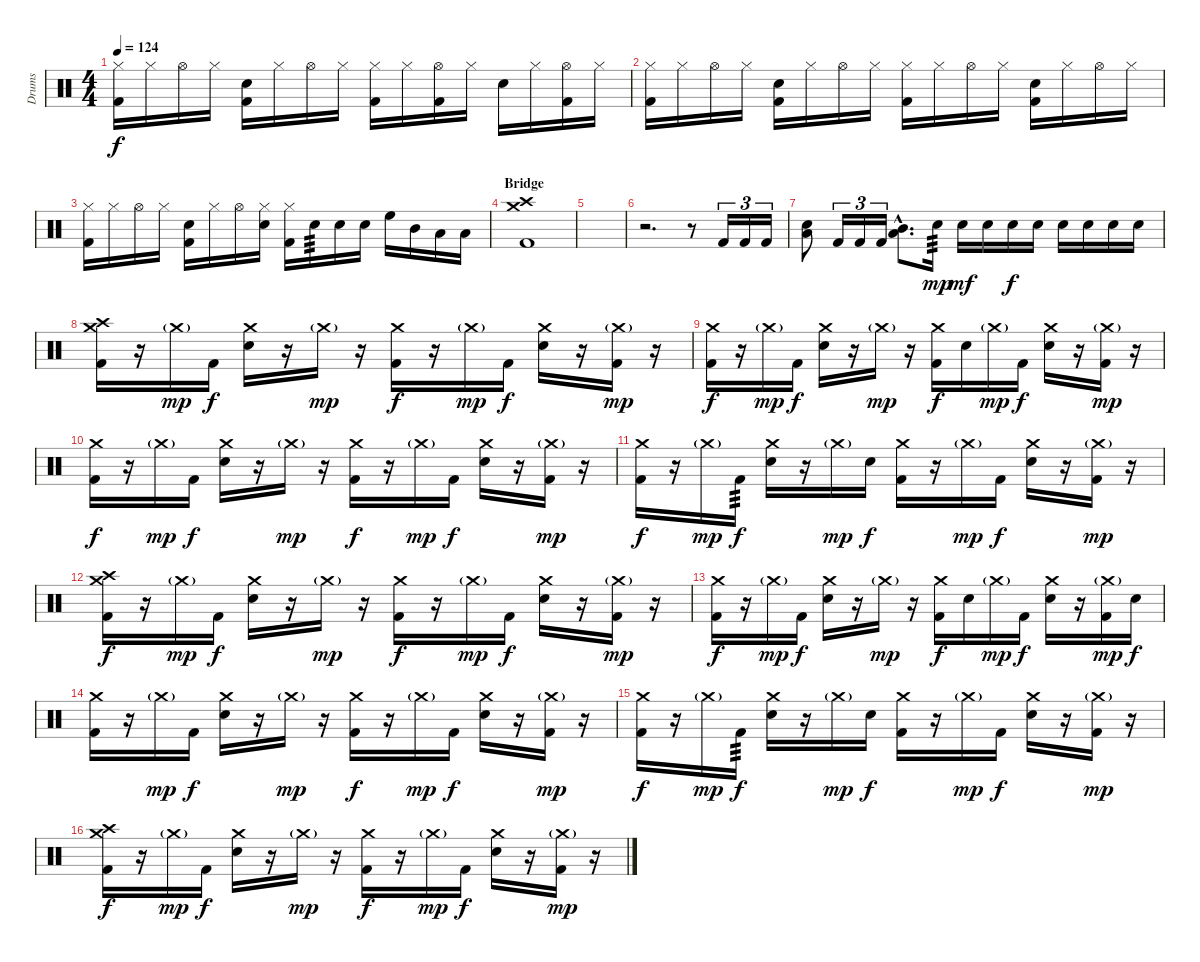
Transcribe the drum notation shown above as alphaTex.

\track ("Drums" "Drums") {instrument percussion}
\staff {score}
\articulation defaults
\ts (4 4)
\tempo 124
\clef neutral
\ks c
("Hi-Hat (closed)" "Kick (hit) 2").16{dy f} "Hi-Hat (closed)".16 "Hi-Hat (open)".16 "Hi-Hat (closed)".16 ("Electric Snare (hit)" "Kick (hit) 2").16 "Hi-Hat (closed)".16 "Hi-Hat (open)".16 "Hi-Hat (closed)".16 ("Hi-Hat (closed)" "Kick (hit) 2").16 "Hi-Hat (closed)".16 ("Hi-Hat (open)" "Kick (hit) 2").16 "Hi-Hat (closed)".16 "Electric Snare (hit)".16 "Hi-Hat (closed)".16 ("Hi-Hat (open)" "Kick (hit) 2").16 "Hi-Hat (closed)".16 |
("Hi-Hat (closed)" "Kick (hit) 2").16 "Hi-Hat (closed)".16 "Hi-Hat (open)".16 "Hi-Hat (closed)".16 ("Electric Snare (hit)" "Kick (hit) 2").16 "Hi-Hat (closed)".16 "Hi-Hat (open)".16 "Hi-Hat (closed)".16 ("Hi-Hat (closed)" "Kick (hit) 2").16 "Hi-Hat (closed)".16 "Hi-Hat (open)".16 "Hi-Hat (closed)".16 ("Electric Snare (hit)" "Kick (hit) 2").16 "Hi-Hat (closed)".16 "Hi-Hat (open)".16 "Hi-Hat (closed)".16 |
("Hi-Hat (closed)" "Kick (hit) 2").16 "Hi-Hat (closed)".16 "Hi-Hat (open)".16 "Hi-Hat (closed)".16 ("Electric Snare (hit)" "Kick (hit) 2").16 "Hi-Hat (closed)".16 "Hi-Hat (open)".16 ("Hi-Hat (closed)" "Electric Snare (hit)").16 ("Hi-Hat (closed)" "Kick (hit) 2").16 "Electric Snare (hit)".16{tp 3} "Electric Snare (hit)".16 "Electric Snare (hit)".16 "High Floor Tom (hit)".16 "Mid Tom (hit)".16 "Low Tom (hit)".16 "Low Tom (hit)".16 |
\section ("" "Bridge")
("Crash high (hit)" "Crash medium (hit)" "Kick (hit) 2").1 |
|
r.2{d} r.8 "Kick (hit) 2".16{tu (3 2)} "Kick (hit) 2".16{tu (3 2)} "Kick (hit) 2".16{tu (3 2)} |
("Electric Snare (hit)" "Low Tom (hit)").8 "Kick (hit) 2".16{tu (3 2)} "Kick (hit) 2".16{tu (3 2)} "Kick (hit) 2".16{tu (3 2)} ("Mid Tom (hit)"{hac} "Low Tom (hit)"{hac}).8{d} "Electric Snare (hit)".16{tp 3 dy mp} "Electric Snare (hit)".16{dy mf} "Electric Snare (hit)".16 "Electric Snare (hit)".16{dy f} "Electric Snare (hit)".16 "Electric Snare (hit)".16 "Electric Snare (hit)".16 "Electric Snare (hit)".16 "Electric Snare (hit)".16 |
("Crash medium (hit)" "Crash high (hit)" "Kick (hit) 2").16 r.16 "Crash medium (hit)"{g}.16{dy mp} "Kick (hit) 2".16{dy f} ("Crash medium (hit)" "Electric Snare (hit)").16 r.16 "Crash medium (hit)"{g}.16{dy mp} r.16 ("Crash medium (hit)" "Kick (hit) 2").16{dy f} r.16 "Crash medium (hit)"{g}.16{dy mp} "Kick (hit) 2".16{dy f} ("Crash medium (hit)" "Electric Snare (hit)").16 r.16 ("Crash medium (hit)"{g} "Kick (hit) 2").16{dy mp} r.16 |
("Crash medium (hit)" "Kick (hit) 2").16{dy f} r.16 "Crash medium (hit)"{g}.16{dy mp} "Kick (hit) 2".16{dy f} ("Crash medium (hit)" "Electric Snare (hit)").16 r.16 "Crash medium (hit)"{g}.16{dy mp} r.16 ("Crash medium (hit)" "Kick (hit) 2").16{dy f} "Electric Snare (hit)".16 "Crash medium (hit)"{g}.16{dy mp} "Kick (hit) 2".16{dy f} ("Crash medium (hit)" "Electric Snare (hit)").16 r.16 ("Crash medium (hit)"{g} "Kick (hit) 2").16{dy mp} r.16 |
("Crash medium (hit)" "Kick (hit) 2").16{dy f} r.16 "Crash medium (hit)"{g}.16{dy mp} "Kick (hit) 2".16{dy f} ("Crash medium (hit)" "Electric Snare (hit)").16 r.16 "Crash medium (hit)"{g}.16{dy mp} r.16 ("Crash medium (hit)" "Kick (hit) 2").16{dy f} r.16 "Crash medium (hit)"{g}.16{dy mp} "Kick (hit) 2".16{dy f} ("Crash medium (hit)" "Electric Snare (hit)").16 r.16 ("Crash medium (hit)"{g} "Kick (hit) 2").16{dy mp} r.16 |
("Crash medium (hit)" "Kick (hit) 2").16{dy f} r.16 "Crash medium (hit)"{g}.16{dy mp} "Kick (hit) 2".16{tp 3 dy f} ("Crash medium (hit)" "Electric Snare (hit)").16 r.16 "Crash medium (hit)"{g}.16{dy mp} "Electric Snare (hit)".16{dy f} ("Crash medium (hit)" "Kick (hit) 2").16 r.16 "Crash medium (hit)"{g}.16{dy mp} "Kick (hit) 2".16{dy f} ("Crash medium (hit)" "Electric Snare (hit)").16 r.16 ("Crash medium (hit)"{g} "Kick (hit) 2").16{dy mp} r.16 |
("Crash medium (hit)" "Crash high (hit)" "Kick (hit) 2").16{dy f} r.16 "Crash medium (hit)"{g}.16{dy mp} "Kick (hit) 2".16{dy f} ("Crash medium (hit)" "Electric Snare (hit)").16 r.16 "Crash medium (hit)"{g}.16{dy mp} r.16 ("Crash medium (hit)" "Kick (hit) 2").16{dy f} r.16 "Crash medium (hit)"{g}.16{dy mp} "Kick (hit) 2".16{dy f} ("Crash medium (hit)" "Electric Snare (hit)").16 r.16 ("Crash medium (hit)"{g} "Kick (hit) 2").16{dy mp} r.16 |
("Crash medium (hit)" "Kick (hit) 2").16{dy f} r.16 "Crash medium (hit)"{g}.16{dy mp} "Kick (hit) 2".16{dy f} ("Crash medium (hit)" "Electric Snare (hit)").16 r.16 "Crash medium (hit)"{g}.16{dy mp} r.16 ("Crash medium (hit)" "Kick (hit) 2").16{dy f} "Electric Snare (hit)".16 "Crash medium (hit)"{g}.16{dy mp} "Kick (hit) 2".16{dy f} ("Crash medium (hit)" "Electric Snare (hit)").16 r.16 ("Crash medium (hit)"{g} "Kick (hit) 2").16{dy mp} "Electric Snare (hit)".16{dy f} |
("Crash medium (hit)" "Kick (hit) 2").16 r.16 "Crash medium (hit)"{g}.16{dy mp} "Kick (hit) 2".16{dy f} ("Crash medium (hit)" "Electric Snare (hit)").16 r.16 "Crash medium (hit)"{g}.16{dy mp} r.16 ("Crash medium (hit)" "Kick (hit) 2").16{dy f} r.16 "Crash medium (hit)"{g}.16{dy mp} "Kick (hit) 2".16{dy f} ("Crash medium (hit)" "Electric Snare (hit)").16 r.16 ("Crash medium (hit)"{g} "Kick (hit) 2").16{dy mp} r.16 |
("Crash medium (hit)" "Kick (hit) 2").16{dy f} r.16 "Crash medium (hit)"{g}.16{dy mp} "Kick (hit) 2".16{tp 3 dy f} ("Crash medium (hit)" "Electric Snare (hit)").16 r.16 "Crash medium (hit)"{g}.16{dy mp} "Electric Snare (hit)".16{dy f} ("Crash medium (hit)" "Kick (hit) 2").16 r.16 "Crash medium (hit)"{g}.16{dy mp} "Kick (hit) 2".16{dy f} ("Crash medium (hit)" "Electric Snare (hit)").16 r.16 ("Crash medium (hit)"{g} "Kick (hit) 2").16{dy mp} r.16 |
("Crash medium (hit)" "Crash high (hit)" "Kick (hit) 2").16{dy f} r.16 "Crash medium (hit)"{g}.16{dy mp} "Kick (hit) 2".16{dy f} ("Crash medium (hit)" "Electric Snare (hit)").16 r.16 "Crash medium (hit)"{g}.16{dy mp} r.16 ("Crash medium (hit)" "Kick (hit) 2").16{dy f} r.16 "Crash medium (hit)"{g}.16{dy mp} "Kick (hit) 2".16{dy f} ("Crash medium (hit)" "Electric Snare (hit)").16 r.16 ("Crash medium (hit)"{g} "Kick (hit) 2").16{dy mp} r.16
